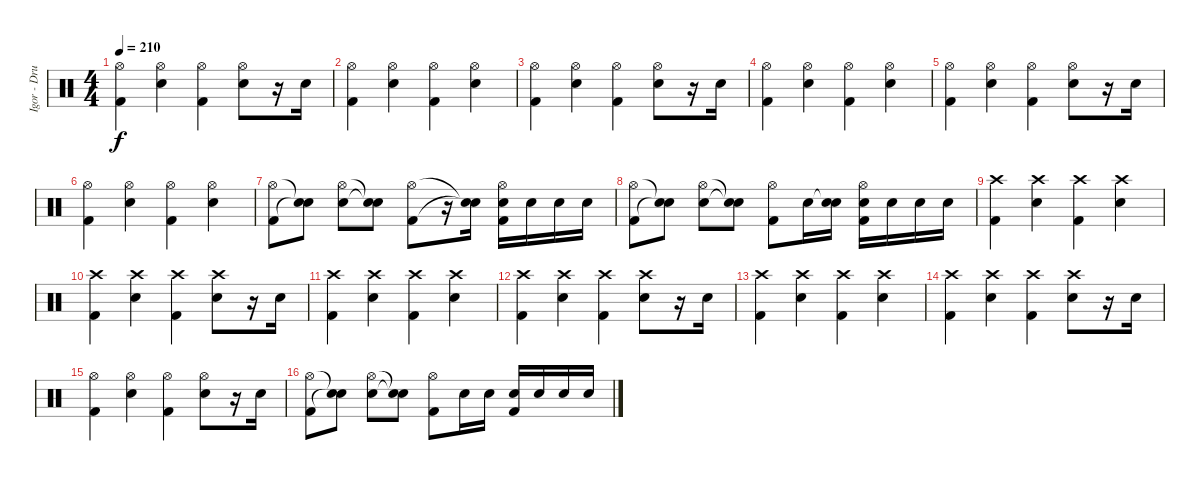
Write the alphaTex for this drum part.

\track ("Igor - Drums" "Igor - Dru") {instrument percussion}
\staff {score}
\articulation defaults
\ts (4 4)
\tempo 210
\clef neutral
\ks c
("Hi-Hat (open)" "Kick (hit) 2").4{dy f} ("Hi-Hat (open)" "Snare (hit) 2").4 ("Hi-Hat (open)" "Kick (hit) 2").4 ("Hi-Hat (open)" "Snare (hit) 2").8 r.16 "Snare (hit) 2".16 |
("Hi-Hat (open)" "Kick (hit) 2").4 ("Hi-Hat (open)" "Snare (hit) 2").4 ("Hi-Hat (open)" "Kick (hit) 2").4 ("Hi-Hat (open)" "Snare (hit) 2").4 |
("Hi-Hat (open)" "Kick (hit) 2").4 ("Hi-Hat (open)" "Snare (hit) 2").4 ("Hi-Hat (open)" "Kick (hit) 2").4 ("Hi-Hat (open)" "Snare (hit) 2").8 r.16 "Snare (hit) 2".16 |
("Hi-Hat (open)" "Kick (hit) 2").4 ("Hi-Hat (open)" "Snare (hit) 2").4 ("Hi-Hat (open)" "Kick (hit) 2").4 ("Hi-Hat (open)" "Snare (hit) 2").4 |
("Hi-Hat (open)" "Kick (hit) 2").4 ("Hi-Hat (open)" "Snare (hit) 2").4 ("Hi-Hat (open)" "Kick (hit) 2").4 ("Hi-Hat (open)" "Snare (hit) 2").8 r.16 "Snare (hit) 2".16 |
("Hi-Hat (open)" "Kick (hit) 2").4 ("Hi-Hat (open)" "Snare (hit) 2").4 ("Hi-Hat (open)" "Kick (hit) 2").4 ("Hi-Hat (open)" "Snare (hit) 2").4 |
("Hi-Hat (open)" "Kick (hit) 2").8 ("Snare (hit)"{t} "Snare (hit)"{t}).8 ("Hi-Hat (open)" "Snare (hit) 2").8 ("Snare (hit)"{t} "Snare (hit)"{t}).8 ("Hi-Hat (open)" "Kick (hit) 2").8 r.16 ("Snare (hit)"{t} "Snare (hit)"{t}).16 ("Hi-Hat (open)" "Snare (hit) 2" "Kick (hit) 2").16 "Snare (hit) 2".16 "Snare (hit) 2".16 "Snare (hit) 2".16 |
("Hi-Hat (open)" "Kick (hit) 2").8 ("Snare (hit)"{t} "Snare (hit)"{t}).8 ("Hi-Hat (open)" "Snare (hit) 2").8 ("Snare (hit)"{t} "Snare (hit)"{t}).8 ("Hi-Hat (open)" "Kick (hit) 2").8 "Snare (hit) 2".16 ("Snare (hit)"{t} "Snare (hit) 2").16 ("Hi-Hat (open)" "Snare (hit) 2" "Kick (hit) 2").16 "Snare (hit) 2".16 "Snare (hit) 2".16 "Snare (hit) 2".16 |
("Crash high (hit)" "Kick (hit) 2").4 ("Crash high (hit)" "Snare (hit) 2").4 ("Crash high (hit)" "Kick (hit) 2").4 ("Crash high (hit)" "Snare (hit) 2").4 |
("Crash high (hit)" "Kick (hit) 2").4 ("Crash high (hit)" "Snare (hit) 2").4 ("Crash high (hit)" "Kick (hit) 2").4 ("Crash high (hit)" "Snare (hit) 2").8 r.16 "Snare (hit) 2".16 |
("Crash high (hit)" "Kick (hit) 2").4 ("Crash high (hit)" "Snare (hit) 2").4 ("Crash high (hit)" "Kick (hit) 2").4 ("Crash high (hit)" "Snare (hit) 2").4 |
("Crash high (hit)" "Kick (hit) 2").4 ("Crash high (hit)" "Snare (hit) 2").4 ("Crash high (hit)" "Kick (hit) 2").4 ("Crash high (hit)" "Snare (hit) 2").8 r.16 "Snare (hit) 2".16 |
("Crash high (hit)" "Kick (hit) 2").4 ("Crash high (hit)" "Snare (hit) 2").4 ("Crash high (hit)" "Kick (hit) 2").4 ("Crash high (hit)" "Snare (hit) 2").4 |
("Crash high (hit)" "Kick (hit) 2").4 ("Crash high (hit)" "Snare (hit) 2").4 ("Crash high (hit)" "Kick (hit) 2").4 ("Crash high (hit)" "Snare (hit) 2").8 r.16 "Snare (hit) 2".16 |
("Hi-Hat (open)" "Kick (hit) 2").4 ("Hi-Hat (open)" "Snare (hit) 2").4 ("Hi-Hat (open)" "Kick (hit) 2").4 ("Hi-Hat (open)" "Snare (hit) 2").8 r.16 "Snare (hit) 2".16 |
("Hi-Hat (open)" "Kick (hit) 2").8 ("Snare (hit)"{t} "Snare (hit)"{t}).8 ("Hi-Hat (open)" "Snare (hit) 2").8 ("Snare (hit)"{t} "Snare (hit)"{t}).8 ("Hi-Hat (open)" "Kick (hit) 2").8 "Snare (hit) 2".16 "Snare (hit) 2".16 ("Snare (hit) 2" "Kick (hit) 2").16 "Snare (hit) 2".16 "Snare (hit) 2".16 "Snare (hit) 2".16
